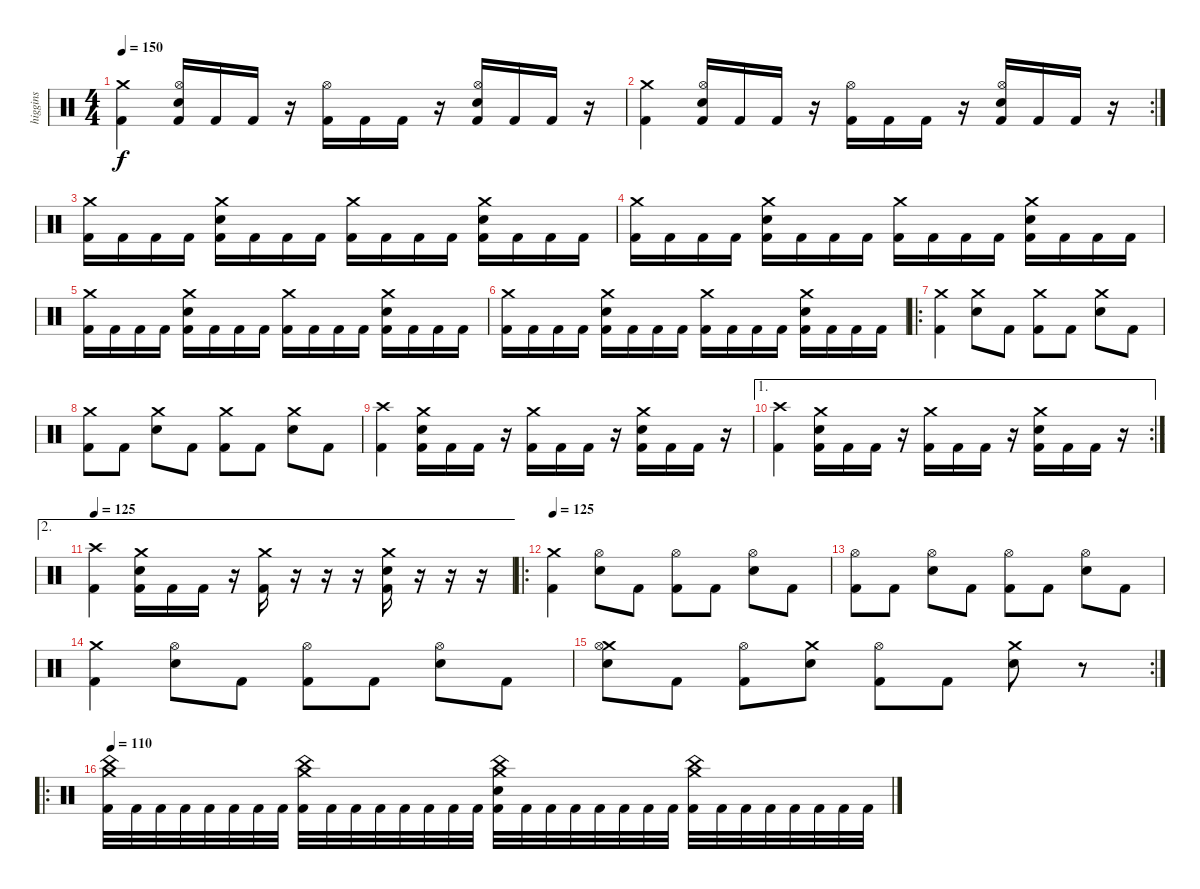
\track ("higgins" "higgins") {instrument percussion}
\staff {score}
\articulation defaults
\ts (4 4)
\tempo 150
\clef neutral
\ks c
("Crash medium (hit)" "Kick (hit) 2").4{dy f} ("Hi-Hat (open)" "Snare (hit) 2" "Kick (hit) 2").16 "Kick (hit) 2".16 "Kick (hit) 2".16 r.16 ("Hi-Hat (open)" "Kick (hit) 2").16 "Kick (hit) 2".16 "Kick (hit) 2".16 r.16 ("Hi-Hat (open)" "Snare (hit) 2" "Kick (hit) 2").16 "Kick (hit) 2".16 "Kick (hit) 2".16 r.16 |
\rc 2
("Crash medium (hit)" "Kick (hit) 2").4 ("Hi-Hat (open)" "Snare (hit) 2" "Kick (hit) 2").16 "Kick (hit) 2".16 "Kick (hit) 2".16 r.16 ("Hi-Hat (open)" "Kick (hit) 2").16 "Kick (hit) 2".16 "Kick (hit) 2".16 r.16 ("Hi-Hat (open)" "Snare (hit) 2" "Kick (hit) 2").16 "Kick (hit) 2".16 "Kick (hit) 2".16 r.16 |
("Crash medium (hit)" "Kick (hit) 2").16 "Kick (hit) 2".16 "Kick (hit) 2".16 "Kick (hit) 2".16 ("Crash medium (hit)" "Snare (hit) 2" "Kick (hit) 2").16 "Kick (hit) 2".16 "Kick (hit) 2".16 "Kick (hit) 2".16 ("Crash medium (hit)" "Kick (hit) 2").16 "Kick (hit) 2".16 "Kick (hit) 2".16 "Kick (hit) 2".16 ("Crash medium (hit)" "Snare (hit) 2" "Kick (hit) 2").16 "Kick (hit) 2".16 "Kick (hit) 2".16 "Kick (hit) 2".16 |
("Crash medium (hit)" "Kick (hit) 2").16 "Kick (hit) 2".16 "Kick (hit) 2".16 "Kick (hit) 2".16 ("Crash medium (hit)" "Snare (hit) 2" "Kick (hit) 2").16 "Kick (hit) 2".16 "Kick (hit) 2".16 "Kick (hit) 2".16 ("Crash medium (hit)" "Kick (hit) 2").16 "Kick (hit) 2".16 "Kick (hit) 2".16 "Kick (hit) 2".16 ("Crash medium (hit)" "Snare (hit) 2" "Kick (hit) 2").16 "Kick (hit) 2".16 "Kick (hit) 2".16 "Kick (hit) 2".16 |
("Crash medium (hit)" "Kick (hit) 2").16 "Kick (hit) 2".16 "Kick (hit) 2".16 "Kick (hit) 2".16 ("Crash medium (hit)" "Snare (hit) 2" "Kick (hit) 2").16 "Kick (hit) 2".16 "Kick (hit) 2".16 "Kick (hit) 2".16 ("Crash medium (hit)" "Kick (hit) 2").16 "Kick (hit) 2".16 "Kick (hit) 2".16 "Kick (hit) 2".16 ("Crash medium (hit)" "Snare (hit) 2" "Kick (hit) 2").16 "Kick (hit) 2".16 "Kick (hit) 2".16 "Kick (hit) 2".16 |
("Crash medium (hit)" "Kick (hit) 2").16 "Kick (hit) 2".16 "Kick (hit) 2".16 "Kick (hit) 2".16 ("Crash medium (hit)" "Snare (hit) 2" "Kick (hit) 2").16 "Kick (hit) 2".16 "Kick (hit) 2".16 "Kick (hit) 2".16 ("Crash medium (hit)" "Kick (hit) 2").16 "Kick (hit) 2".16 "Kick (hit) 2".16 "Kick (hit) 2".16 ("Crash medium (hit)" "Snare (hit) 2" "Kick (hit) 2").16 "Kick (hit) 2".16 "Kick (hit) 2".16 "Kick (hit) 2".16 |
\ro
("Crash medium (hit)" "Kick (hit) 2").4 ("Crash medium (hit)" "Snare (hit) 2").8 "Kick (hit) 2".8 ("Crash medium (hit)" "Kick (hit) 2").8 "Kick (hit) 2".8 ("Crash medium (hit)" "Snare (hit) 2").8 "Kick (hit) 2".8 |
("Crash medium (hit)" "Kick (hit) 2").8 "Kick (hit) 2".8 ("Crash medium (hit)" "Snare (hit) 2").8 "Kick (hit) 2".8 ("Crash medium (hit)" "Kick (hit) 2").8 "Kick (hit) 2".8 ("Crash medium (hit)" "Snare (hit) 2").8 "Kick (hit) 2".8 |
("Crash high (hit)" "Kick (hit) 2").4 ("Crash medium (hit)" "Snare (hit) 2" "Kick (hit) 2").16 "Kick (hit) 2".16 "Kick (hit) 2".16 r.16 ("Crash medium (hit)" "Kick (hit) 2").16 "Kick (hit) 2".16 "Kick (hit) 2".16 r.16 ("Crash medium (hit)" "Snare (hit) 2" "Kick (hit) 2").16 "Kick (hit) 2".16 "Kick (hit) 2".16 r.16 |
\ae 1
\rc 2
("Crash high (hit)" "Kick (hit) 2").4 ("Crash medium (hit)" "Snare (hit) 2" "Kick (hit) 2").16 "Kick (hit) 2".16 "Kick (hit) 2".16 r.16 ("Crash medium (hit)" "Kick (hit) 2").16 "Kick (hit) 2".16 "Kick (hit) 2".16 r.16 ("Crash medium (hit)" "Snare (hit) 2" "Kick (hit) 2").16 "Kick (hit) 2".16 "Kick (hit) 2".16 r.16 |
\ae 2
\tempo 125
("Crash high (hit)" "Kick (hit) 2").4 ("Crash medium (hit)" "Snare (hit) 2" "Kick (hit) 2").16 "Kick (hit) 2".16 "Kick (hit) 2".16 r.16 ("Crash medium (hit)" "Kick (hit) 2").16 r.16 r.16 r.16 ("Crash medium (hit)" "Snare (hit) 2" "Kick (hit) 2").16 r.16 r.16 r.16 |
\ro
\tempo 125
("Crash medium (hit)" "Kick (hit) 2").4 ("Hi-Hat (open)" "Snare (hit) 2").8 "Kick (hit) 2".8 ("Hi-Hat (open)" "Kick (hit) 2").8 "Kick (hit) 2".8 ("Hi-Hat (open)" "Snare (hit) 2").8 "Kick (hit) 2".8 |
("Hi-Hat (open)" "Kick (hit) 2").8 "Kick (hit) 2".8 ("Hi-Hat (open)" "Snare (hit) 2").8 "Kick (hit) 2".8 ("Hi-Hat (open)" "Kick (hit) 2").8 "Kick (hit) 2".8 ("Hi-Hat (open)" "Snare (hit) 2").8 "Kick (hit) 2".8 |
("Crash medium (hit)" "Kick (hit) 2").4 ("Hi-Hat (open)" "Snare (hit) 2").8 "Kick (hit) 2".8 ("Hi-Hat (open)" "Kick (hit) 2").8 "Kick (hit) 2".8 ("Hi-Hat (open)" "Snare (hit) 2").8 "Kick (hit) 2".8 |
\rc 2
("Crash medium (hit)" "Hi-Hat (open)" "Snare (hit) 2").8 "Kick (hit) 2".8 ("Hi-Hat (open)" "Kick (hit) 2").8 ("Crash medium (hit)" "Snare (hit) 2").8 ("Hi-Hat (open)" "Kick (hit) 2").8 "Kick (hit) 2".8 ("Crash medium (hit)" "Snare (hit) 2").8 r.8 |
\ro
\tempo 110
("Crash medium (hit)" "China (hit)" "Kick (hit) 2").32 "Kick (hit) 2".32 "Kick (hit) 2".32 "Kick (hit) 2".32 "Kick (hit) 2".32 "Kick (hit) 2".32 "Kick (hit) 2".32 "Kick (hit) 2".32 ("Crash medium (hit)" "China (hit)" "Kick (hit) 2").32 "Kick (hit) 2".32 "Kick (hit) 2".32 "Kick (hit) 2".32 "Kick (hit) 2".32 "Kick (hit) 2".32 "Kick (hit) 2".32 "Kick (hit) 2".32 ("China (hit)" "Crash medium (hit)" "Snare (hit) 2" "Kick (hit) 2").32 "Kick (hit) 2".32 "Kick (hit) 2".32 "Kick (hit) 2".32 "Kick (hit) 2".32 "Kick (hit) 2".32 "Kick (hit) 2".32 "Kick (hit) 2".32 ("Crash medium (hit)" "China (hit)" "Kick (hit) 2").32 "Kick (hit) 2".32 "Kick (hit) 2".32 "Kick (hit) 2".32 "Kick (hit) 2".32 "Kick (hit) 2".32 "Kick (hit) 2".32 "Kick (hit) 2".32
